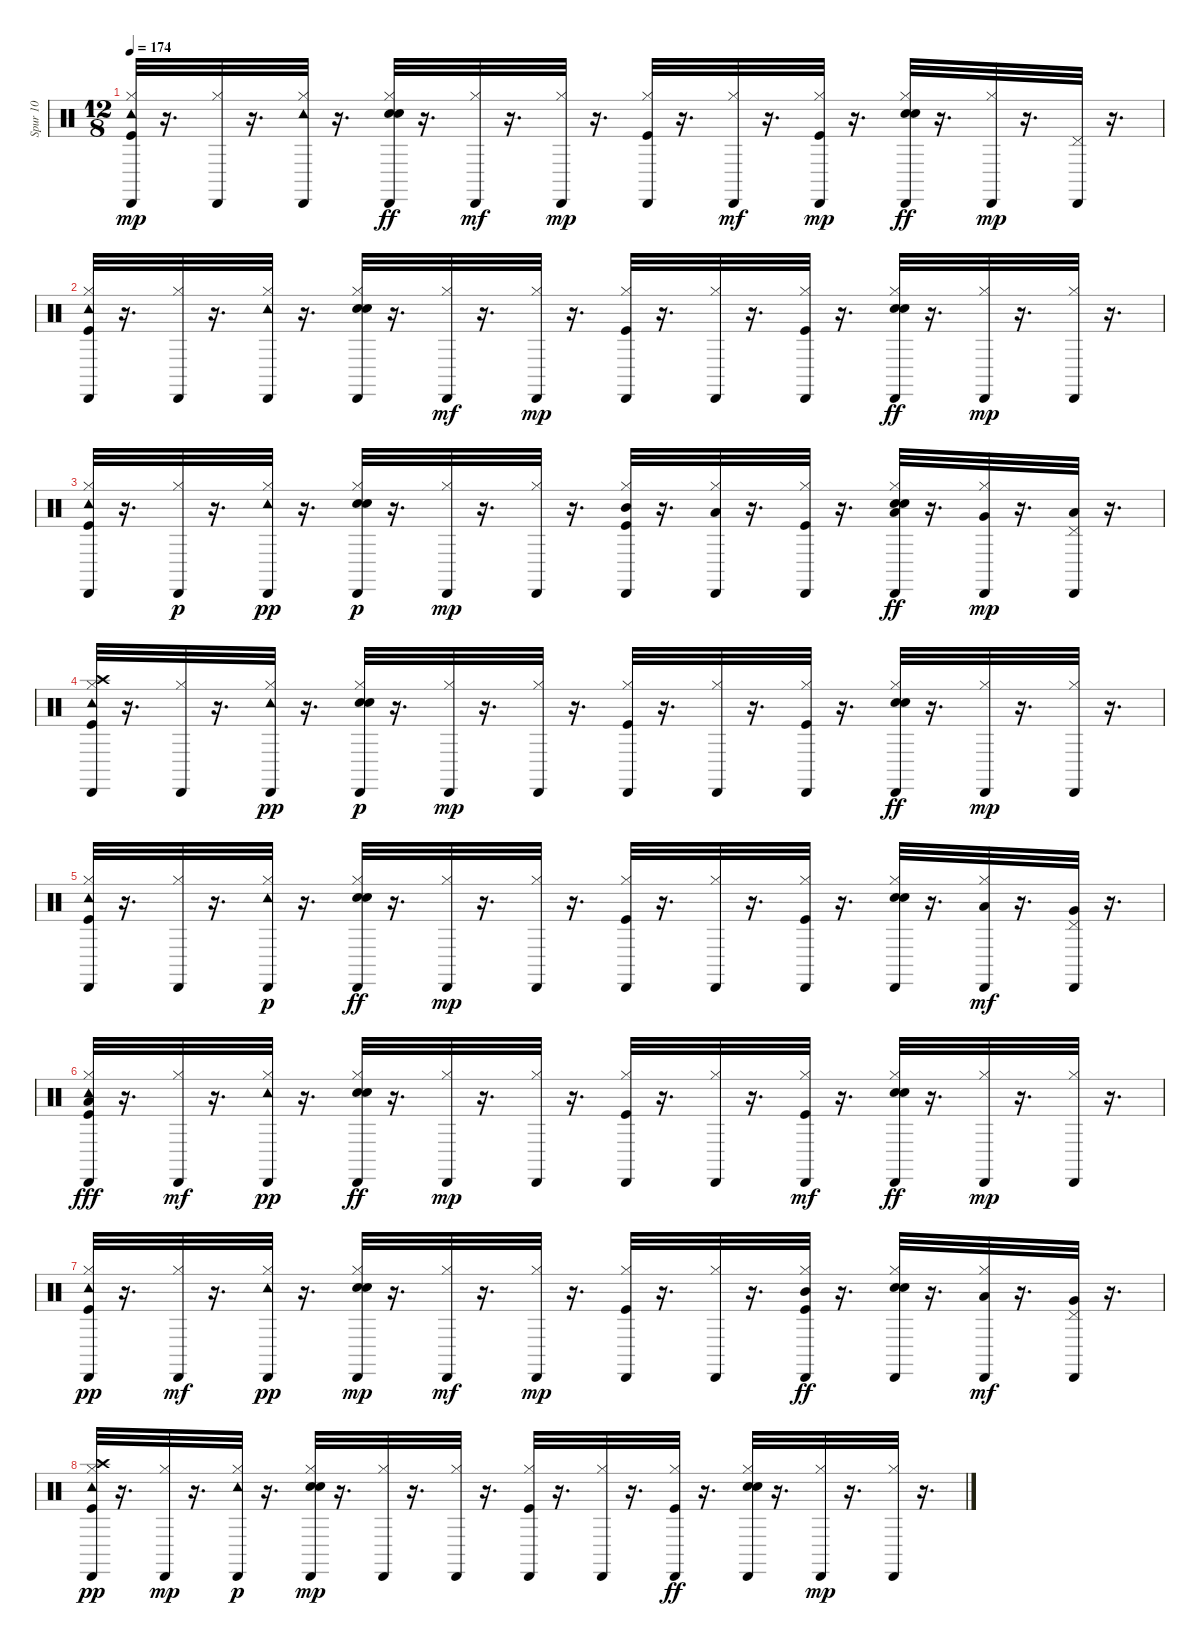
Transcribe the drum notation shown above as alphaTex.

\track ("Spur 10" "Spur 10") {instrument percussion}
\staff {score}
\articulation defaults
\ts (12 8)
\tempo 174
\clef neutral
\ks c
("Tambourine (hit)" "Hi-Hat (closed)" "Kick (hit)" "Cabasa (hit)").32{dy mp} r.16{d} ("Cabasa (hit)" "Hi-Hat (closed)").32 r.16{d} ("Tambourine (hit)" "Cabasa (hit)" "Hi-Hat (closed)").32 r.16{d} ("Cabasa (hit)" "Hi-Hat (closed)" "Electric Snare (hit)" "Hand Clap (hit)").32{dy ff} r.16{d} ("Cabasa (hit)" "Hi-Hat (closed)").32{dy mf} r.16{d} ("Hi-Hat (closed)" "Cabasa (hit)").32{dy mp} r.16{d} ("Cabasa (hit)" "Hi-Hat (closed)" "Kick (hit)").32 r.16{d} ("Cabasa (hit)" "Hi-Hat (closed)").32{dy mf} r.16{d} ("Cabasa (hit)" "Hi-Hat (closed)" "Kick (hit)").32{dy mp} r.16{d} ("Hi-Hat (closed)" "Cabasa (hit)" "Electric Snare (hit)" "Hand Clap (hit)").32{dy ff} r.16{d} ("Hi-Hat (closed)" "Cabasa (hit)").32{dy mp} r.16{d} ("Pedal Hi-Hat (hit)" "Cabasa (hit)").32 r.16{d} |
("Tambourine (hit)" "Hi-Hat (closed)" "Kick (hit)" "Cabasa (hit)").32 r.16{d} ("Cabasa (hit)" "Hi-Hat (closed)").32 r.16{d} ("Tambourine (hit)" "Hi-Hat (closed)" "Cabasa (hit)").32 r.16{d} ("Electric Snare (hit)" "Hand Clap (hit)" "Cabasa (hit)" "Hi-Hat (closed)").32 r.16{d} ("Cabasa (hit)" "Hi-Hat (closed)").32{dy mf} r.16{d} ("Hi-Hat (closed)" "Cabasa (hit)").32{dy mp} r.16{d} ("Kick (hit)" "Hi-Hat (closed)" "Cabasa (hit)").32 r.16{d} ("Cabasa (hit)" "Hi-Hat (closed)").32 r.16{d} ("Kick (hit)" "Hi-Hat (closed)" "Cabasa (hit)").32 r.16{d} ("Hand Clap (hit)" "Cabasa (hit)" "Hi-Hat (closed)" "Electric Snare (hit)").32{dy ff} r.16{d} ("Hi-Hat (closed)" "Cabasa (hit)").32{dy mp} r.16{d} ("Hi-Hat (closed)" "Cabasa (hit)").32 r.16{d} |
("Hi-Hat (closed)" "Kick (hit)" "Tambourine (hit)" "Cabasa (hit)").32 r.16{d} ("Hi-Hat (closed)" "Cabasa (hit)").32{dy p} r.16{d} ("Hi-Hat (closed)" "Cabasa (hit)" "Tambourine (hit)").32{dy pp} r.16{d} ("Hi-Hat (closed)" "Hand Clap (hit)" "Electric Snare (hit)" "Cabasa (hit)").32{dy p} r.16{d} ("Hi-Hat (closed)" "Cabasa (hit)").32{dy mp} r.16{d} ("Hi-Hat (closed)" "Cabasa (hit)").32 r.16{d} ("Hi-Hat (closed)" "Kick (hit)" "Mid Tom (hit)" "Cabasa (hit)").32 r.16{d} ("Low Tom (hit)" "Cabasa (hit)" "Hi-Hat (closed)").32 r.16{d} ("Hi-Hat (closed)" "Cabasa (hit)" "Kick (hit)").32 r.16{d} ("Hand Clap (hit)" "Hi-Hat (closed)" "Cabasa (hit)" "Electric Snare (hit)" "Low Tom (hit)").32{dy ff} r.16{d} ("Hi-Hat (closed)" "Cabasa (hit)" "Very Low Tom (hit)").32{dy mp} r.16{d} ("Pedal Hi-Hat (hit)" "Low Floor Tom (hit)" "Cabasa (hit)").32 r.16{d} |
("Tambourine (hit)" "Hi-Hat (closed)" "Cabasa (hit)" "Crash high (hit)" "Kick (hit)").32 r.16{d} ("Hi-Hat (closed)" "Cabasa (hit)").32 r.16{d} ("Hi-Hat (closed)" "Cabasa (hit)" "Tambourine (hit)").32{dy pp} r.16{d} ("Hi-Hat (closed)" "Hand Clap (hit)" "Electric Snare (hit)" "Cabasa (hit)").32{dy p} r.16{d} ("Hi-Hat (closed)" "Cabasa (hit)").32{dy mp} r.16{d} ("Hi-Hat (closed)" "Cabasa (hit)").32 r.16{d} ("Kick (hit)" "Cabasa (hit)" "Hi-Hat (closed)").32 r.16{d} ("Cabasa (hit)" "Hi-Hat (closed)").32 r.16{d} ("Hi-Hat (closed)" "Kick (hit)" "Cabasa (hit)").32 r.16{d} ("Hi-Hat (closed)" "Hand Clap (hit)" "Cabasa (hit)" "Electric Snare (hit)").32{dy ff} r.16{d} ("Hi-Hat (closed)" "Cabasa (hit)").32{dy mp} r.16{d} ("Hi-Hat (closed)" "Cabasa (hit)").32 r.16{d} |
("Tambourine (hit)" "Kick (hit)" "Cabasa (hit)" "Hi-Hat (closed)").32 r.16{d} ("Cabasa (hit)" "Hi-Hat (closed)").32 r.16{d} ("Hi-Hat (closed)" "Tambourine (hit)" "Cabasa (hit)").32{dy p} r.16{d} ("Hi-Hat (closed)" "Electric Snare (hit)" "Cabasa (hit)" "Hand Clap (hit)").32{dy ff} r.16{d} ("Hi-Hat (closed)" "Cabasa (hit)").32{dy mp} r.16{d} ("Hi-Hat (closed)" "Cabasa (hit)").32 r.16{d} ("Kick (hit)" "Hi-Hat (closed)" "Cabasa (hit)").32 r.16{d} ("Cabasa (hit)" "Hi-Hat (closed)").32 r.16{d} ("Hi-Hat (closed)" "Kick (hit)" "Cabasa (hit)").32 r.16{d} ("Hi-Hat (closed)" "Hand Clap (hit)" "Electric Snare (hit)" "Cabasa (hit)").32 r.16{d} ("Cabasa (hit)" "Hi-Hat (closed)" "Low Tom (hit)").32{dy mf} r.16{d} ("Very Low Tom (hit)" "Cabasa (hit)" "Pedal Hi-Hat (hit)").32 r.16{d} |
("Tambourine (hit)" "Cabasa (hit)" "Hi-Hat (closed)" "Kick (hit)" "Low Floor Tom (hit)").32{dy fff} r.16{d} ("Cabasa (hit)" "Hi-Hat (closed)").32{dy mf} r.16{d} ("Hi-Hat (closed)" "Cabasa (hit)" "Tambourine (hit)").32{dy pp} r.16{d} ("Hi-Hat (closed)" "Hand Clap (hit)" "Cabasa (hit)" "Electric Snare (hit)").32{dy ff} r.16{d} ("Hi-Hat (closed)" "Cabasa (hit)").32{dy mp} r.16{d} ("Hi-Hat (closed)" "Cabasa (hit)").32 r.16{d} ("Kick (hit)" "Cabasa (hit)" "Hi-Hat (closed)").32 r.16{d} ("Hi-Hat (closed)" "Cabasa (hit)").32 r.16{d} ("Cabasa (hit)" "Hi-Hat (closed)" "Kick (hit)").32{dy mf} r.16{d} ("Hand Clap (hit)" "Cabasa (hit)" "Hi-Hat (closed)" "Electric Snare (hit)").32{dy ff} r.16{d} ("Hi-Hat (closed)" "Cabasa (hit)").32{dy mp} r.16{d} ("Hi-Hat (closed)" "Cabasa (hit)").32 r.16{d} |
("Hi-Hat (closed)" "Kick (hit)" "Cabasa (hit)" "Tambourine (hit)").32{dy pp} r.16{d} ("Cabasa (hit)" "Hi-Hat (closed)").32{dy mf} r.16{d} ("Hi-Hat (closed)" "Cabasa (hit)" "Tambourine (hit)").32{dy pp} r.16{d} ("Hi-Hat (closed)" "Electric Snare (hit)" "Hand Clap (hit)" "Cabasa (hit)").32{dy mp} r.16{d} ("Cabasa (hit)" "Hi-Hat (closed)").32{dy mf} r.16{d} ("Hi-Hat (closed)" "Cabasa (hit)").32{dy mp} r.16{d} ("Cabasa (hit)" "Kick (hit)" "Hi-Hat (closed)").32 r.16{d} ("Cabasa (hit)" "Hi-Hat (closed)").32 r.16{d} ("Mid Tom (hit)" "Cabasa (hit)" "Hi-Hat (closed)" "Kick (hit)").32{dy ff} r.16{d} ("Hand Clap (hit)" "Cabasa (hit)" "Hi-Hat (closed)" "Electric Snare (hit)").32 r.16{d} ("Low Tom (hit)" "Cabasa (hit)" "Hi-Hat (closed)").32{dy mf} r.16{d} ("Very Low Tom (hit)" "Cabasa (hit)" "Pedal Hi-Hat (hit)").32 r.16{d} |
("Kick (hit)" "Cabasa (hit)" "Hi-Hat (closed)" "Crash high (hit)" "Tambourine (hit)").32{dy pp} r.16{d} ("Hi-Hat (closed)" "Cabasa (hit)").32{dy mp} r.16{d} ("Hi-Hat (closed)" "Cabasa (hit)" "Tambourine (hit)").32{dy p} r.16{d} ("Hand Clap (hit)" "Hi-Hat (closed)" "Electric Snare (hit)" "Cabasa (hit)").32{dy mp} r.16{d} ("Hi-Hat (closed)" "Cabasa (hit)").32 r.16{d} ("Hi-Hat (closed)" "Cabasa (hit)").32 r.16{d} ("Hi-Hat (closed)" "Kick (hit)" "Cabasa (hit)").32 r.16{d} ("Hi-Hat (closed)" "Cabasa (hit)").32 r.16{d} ("Hi-Hat (closed)" "Cabasa (hit)" "Kick (hit)").32{dy ff} r.16{d} ("Hi-Hat (closed)" "Hand Clap (hit)" "Cabasa (hit)" "Electric Snare (hit)").32 r.16{d} ("Hi-Hat (closed)" "Cabasa (hit)").32{dy mp} r.16{d} ("Hi-Hat (closed)" "Cabasa (hit)").32 r.16{d}
